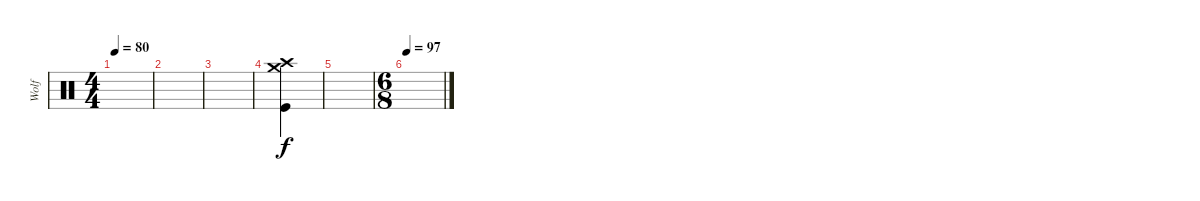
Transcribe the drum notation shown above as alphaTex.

\track ("Wolf" "Wolf") {instrument percussion}
\staff {score}
\articulation defaults
\ts (4 4)
\tempo 80
\clef neutral
\ks c
|
|
|
("Crash medium (hit)" "Crash high (hit)" "Kick (hit)").4 |
|
\ts (6 8)
\tempo 97
